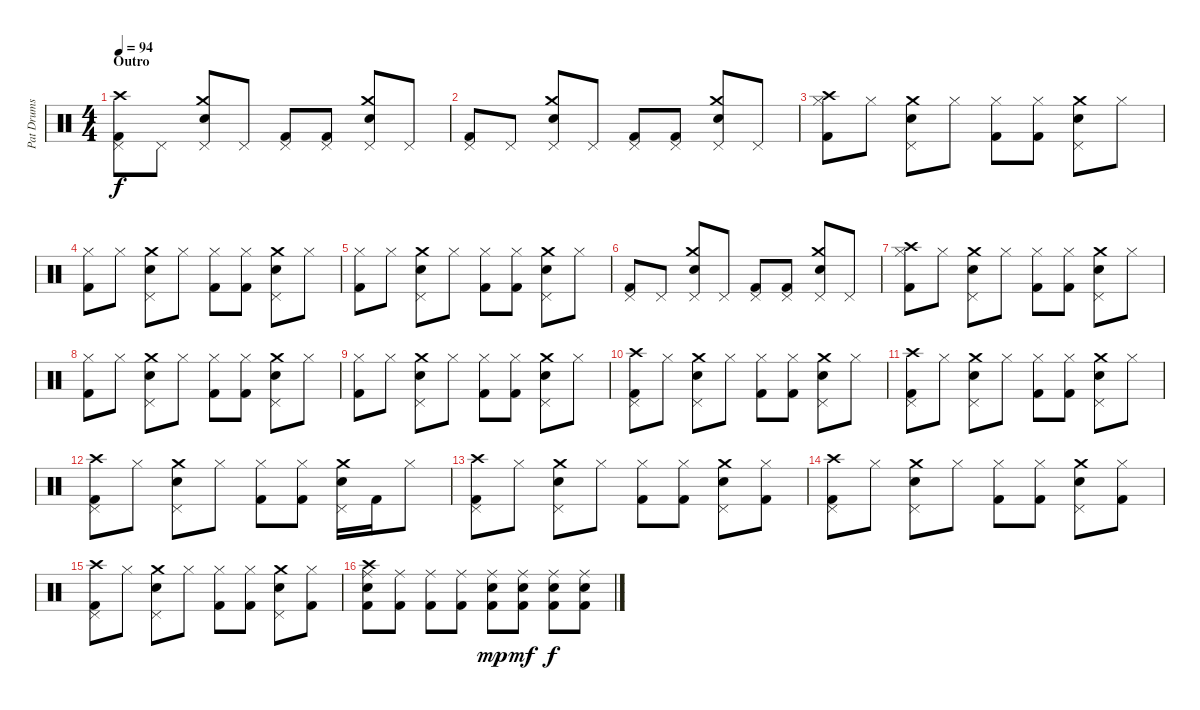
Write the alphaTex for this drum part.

\track ("Pat Drums" "Pat Drums") {instrument percussion}
\staff {score}
\articulation defaults
\ts (4 4)
\section ("" "Outro")
\tempo 94
\clef neutral
\ks c
("Crash high (hit)" "Pedal Hi-Hat (hit)" "Kick (hit) 2").8{dy f} "Pedal Hi-Hat (hit)".8 ("Crash medium (hit)" "Pedal Hi-Hat (hit)" "Electric Snare (hit)").8 "Pedal Hi-Hat (hit)".8 ("Pedal Hi-Hat (hit)" "Kick (hit) 2").8 ("Pedal Hi-Hat (hit)" "Kick (hit) 2").8 ("Crash medium (hit)" "Pedal Hi-Hat (hit)" "Electric Snare (hit)").8 "Pedal Hi-Hat (hit)".8 |
("Pedal Hi-Hat (hit)" "Kick (hit) 2").8 "Pedal Hi-Hat (hit)".8 ("Crash medium (hit)" "Pedal Hi-Hat (hit)" "Electric Snare (hit)").8 "Pedal Hi-Hat (hit)".8 ("Pedal Hi-Hat (hit)" "Kick (hit) 2").8 ("Pedal Hi-Hat (hit)" "Kick (hit) 2").8 ("Crash medium (hit)" "Pedal Hi-Hat (hit)" "Electric Snare (hit)").8 "Pedal Hi-Hat (hit)".8 |
("Hi-Hat (closed)" "Kick (hit) 2" "Crash high (hit)").8 "Hi-Hat (closed)".8 ("Electric Snare (hit)" "Pedal Hi-Hat (hit)" "Crash medium (hit)").8 "Hi-Hat (closed)".8 ("Hi-Hat (closed)" "Kick (hit) 2").8 ("Hi-Hat (closed)" "Kick (hit) 2").8 ("Electric Snare (hit)" "Pedal Hi-Hat (hit)" "Crash medium (hit)").8 "Hi-Hat (closed)".8 |
("Hi-Hat (closed)" "Kick (hit) 2").8 "Hi-Hat (closed)".8 ("Electric Snare (hit)" "Pedal Hi-Hat (hit)" "Crash medium (hit)").8 "Hi-Hat (closed)".8 ("Hi-Hat (closed)" "Kick (hit) 2").8 ("Hi-Hat (closed)" "Kick (hit) 2").8 ("Electric Snare (hit)" "Pedal Hi-Hat (hit)" "Crash medium (hit)").8 "Hi-Hat (closed)".8 |
("Hi-Hat (closed)" "Kick (hit) 2").8 "Hi-Hat (closed)".8 ("Electric Snare (hit)" "Pedal Hi-Hat (hit)" "Crash medium (hit)").8 "Hi-Hat (closed)".8 ("Hi-Hat (closed)" "Kick (hit) 2").8 ("Hi-Hat (closed)" "Kick (hit) 2").8 ("Electric Snare (hit)" "Pedal Hi-Hat (hit)" "Crash medium (hit)").8 "Hi-Hat (closed)".8 |
("Pedal Hi-Hat (hit)" "Kick (hit) 2").8 "Pedal Hi-Hat (hit)".8 ("Crash medium (hit)" "Pedal Hi-Hat (hit)" "Electric Snare (hit)").8 "Pedal Hi-Hat (hit)".8 ("Pedal Hi-Hat (hit)" "Kick (hit) 2").8 ("Pedal Hi-Hat (hit)" "Kick (hit) 2").8 ("Crash medium (hit)" "Pedal Hi-Hat (hit)" "Electric Snare (hit)").8 "Pedal Hi-Hat (hit)".8 |
("Hi-Hat (closed)" "Kick (hit) 2" "Crash high (hit)").8 "Hi-Hat (closed)".8 ("Electric Snare (hit)" "Pedal Hi-Hat (hit)" "Crash medium (hit)").8 "Hi-Hat (closed)".8 ("Hi-Hat (closed)" "Kick (hit) 2").8 ("Hi-Hat (closed)" "Kick (hit) 2").8 ("Electric Snare (hit)" "Pedal Hi-Hat (hit)" "Crash medium (hit)").8 "Hi-Hat (closed)".8 |
("Hi-Hat (closed)" "Kick (hit) 2").8 "Hi-Hat (closed)".8 ("Electric Snare (hit)" "Pedal Hi-Hat (hit)" "Crash medium (hit)").8 "Hi-Hat (closed)".8 ("Hi-Hat (closed)" "Kick (hit) 2").8 ("Hi-Hat (closed)" "Kick (hit) 2").8 ("Electric Snare (hit)" "Pedal Hi-Hat (hit)" "Crash medium (hit)").8 "Hi-Hat (closed)".8 |
("Hi-Hat (closed)" "Kick (hit) 2").8 "Hi-Hat (closed)".8 ("Electric Snare (hit)" "Pedal Hi-Hat (hit)" "Crash medium (hit)").8 "Hi-Hat (closed)".8 ("Hi-Hat (closed)" "Kick (hit) 2").8 ("Hi-Hat (closed)" "Kick (hit) 2").8 ("Electric Snare (hit)" "Pedal Hi-Hat (hit)" "Crash medium (hit)").8 "Hi-Hat (closed)".8 |
("Crash high (hit)" "Pedal Hi-Hat (hit)" "Kick (hit) 2").8 "Hi-Hat (closed)".8 ("Electric Snare (hit)" "Pedal Hi-Hat (hit)" "Crash medium (hit)").8 "Hi-Hat (closed)".8 ("Hi-Hat (closed)" "Kick (hit) 2").8 ("Hi-Hat (closed)" "Kick (hit) 2").8 ("Electric Snare (hit)" "Pedal Hi-Hat (hit)" "Crash medium (hit)").8 "Hi-Hat (closed)".8 |
("Pedal Hi-Hat (hit)" "Kick (hit) 2" "Crash high (hit)").8 "Hi-Hat (closed)".8 ("Electric Snare (hit)" "Pedal Hi-Hat (hit)" "Crash medium (hit)").8 "Hi-Hat (closed)".8 ("Hi-Hat (closed)" "Kick (hit) 2").8 ("Hi-Hat (closed)" "Kick (hit) 2").8 ("Electric Snare (hit)" "Pedal Hi-Hat (hit)" "Crash medium (hit)").8 "Hi-Hat (closed)".8 |
("Pedal Hi-Hat (hit)" "Kick (hit) 2" "Crash high (hit)").8 "Hi-Hat (closed)".8 ("Electric Snare (hit)" "Pedal Hi-Hat (hit)" "Crash medium (hit)").8 "Hi-Hat (closed)".8 ("Hi-Hat (closed)" "Kick (hit) 2").8 ("Hi-Hat (closed)" "Kick (hit) 2").8 ("Electric Snare (hit)" "Pedal Hi-Hat (hit)" "Crash medium (hit)").16 "Kick (hit) 2".16 "Hi-Hat (closed)".8 |
("Pedal Hi-Hat (hit)" "Kick (hit) 2" "Crash high (hit)").8 "Hi-Hat (closed)".8 ("Electric Snare (hit)" "Pedal Hi-Hat (hit)" "Crash medium (hit)").8 "Hi-Hat (closed)".8 ("Hi-Hat (closed)" "Kick (hit) 2").8 ("Hi-Hat (closed)" "Kick (hit) 2").8 ("Electric Snare (hit)" "Pedal Hi-Hat (hit)" "Crash medium (hit)").8 ("Hi-Hat (closed)" "Kick (hit) 2").8 |
("Pedal Hi-Hat (hit)" "Kick (hit) 2" "Crash high (hit)").8 "Hi-Hat (closed)".8 ("Electric Snare (hit)" "Pedal Hi-Hat (hit)" "Crash medium (hit)").8 "Hi-Hat (closed)".8 ("Hi-Hat (closed)" "Kick (hit) 2").8 ("Hi-Hat (closed)" "Kick (hit) 2").8 ("Electric Snare (hit)" "Pedal Hi-Hat (hit)" "Crash medium (hit)").8 ("Hi-Hat (closed)" "Kick (hit) 2").8 |
("Pedal Hi-Hat (hit)" "Kick (hit) 2" "Crash high (hit)").8 "Hi-Hat (closed)".8 ("Electric Snare (hit)" "Pedal Hi-Hat (hit)" "Crash medium (hit)").8 "Hi-Hat (closed)".8 ("Hi-Hat (closed)" "Kick (hit) 2").8 ("Hi-Hat (closed)" "Kick (hit) 2").8 ("Electric Snare (hit)" "Pedal Hi-Hat (hit)" "Crash medium (hit)").8 ("Hi-Hat (closed)" "Kick (hit) 2").8 |
("Electric Snare (hit)" "Ride (middle)" "Kick (hit) 2" "Crash high (hit)").8 ("Ride (middle)" "Kick (hit) 2").8 ("Ride (middle)" "Kick (hit) 2").8 ("Ride (middle)" "Kick (hit) 2").8 ("Electric Snare (hit)" "Ride (middle)" "Kick (hit) 2").8{dy mp} ("Electric Snare (hit)" "Ride (middle)" "Kick (hit) 2").8{dy mf} ("Electric Snare (hit)" "Ride (middle)" "Kick (hit) 2").8{dy f} ("Electric Snare (hit)" "Ride (middle)" "Kick (hit) 2").8
